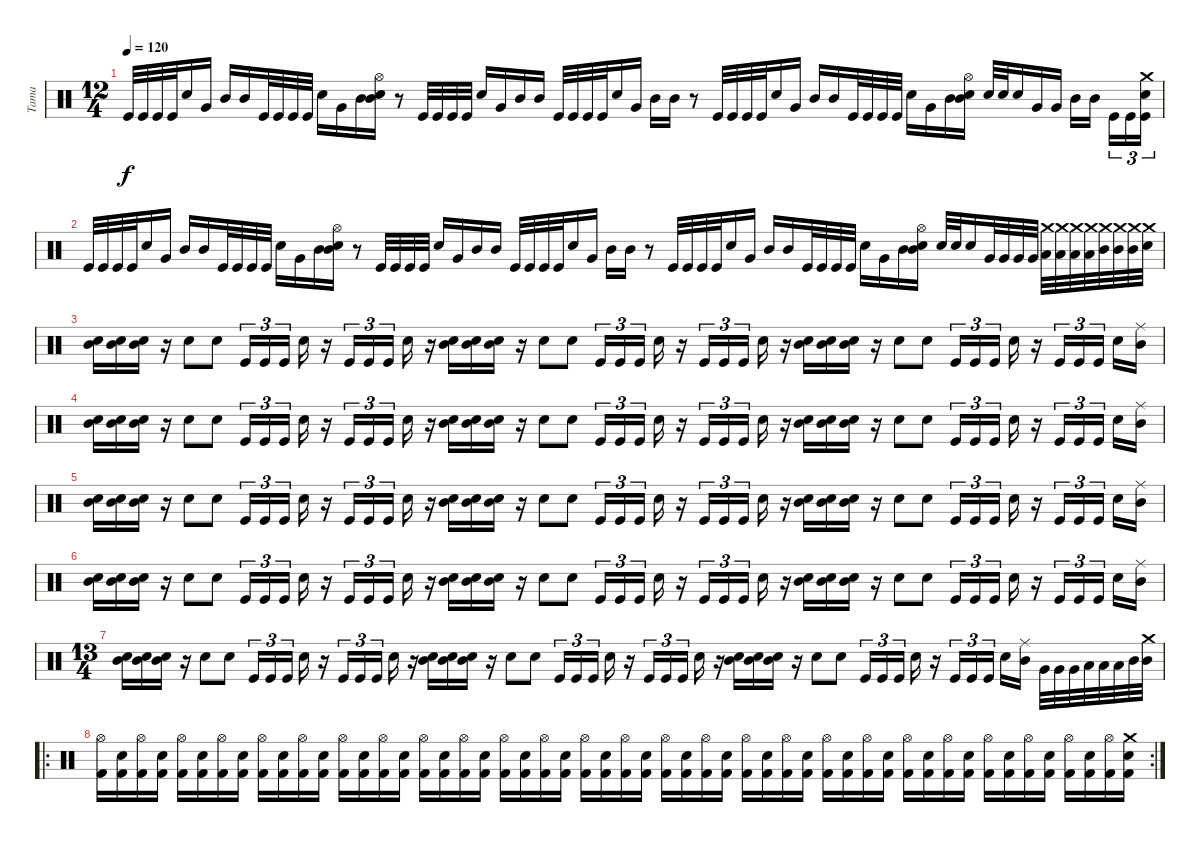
\track ("Tama" "Tama") {instrument percussion}
\staff {score}
\articulation defaults
\ts (12 4)
\tempo 120
\clef neutral
\ks c "Kick (hit)".32{dy f} "Kick (hit)".32 "Kick (hit)".32 "Kick (hit)".32 "Electric Snare (hit)".16 "Very Low Tom (hit)".16 "Mid Tom (hit)".16 "Mid Tom (hit)".16 "Kick (hit)".32 "Kick (hit)".32 "Kick (hit)".32 "Kick (hit)".32 "Electric Snare (hit)".16 "Very Low Tom (hit)".16 "Mid Tom (hit)".16
("Mid Tom (hit)" "Electric Snare (hit)" "Hi-Hat (open)").16 r.8 "Kick (hit)".32 "Kick (hit)".32 "Kick (hit)".32 "Kick (hit)".32 "Electric Snare (hit)".16 "Very Low Tom (hit)".16 "Mid Tom (hit)".16 "Mid Tom (hit)".16 "Kick (hit)".32 "Kick (hit)".32 "Kick (hit)".32 "Kick (hit)".32 "Electric Snare (hit)".16 "Very Low Tom (hit)".16 "Mid Tom (hit)".16 "Mid Tom (hit)".16 r.8 "Kick (hit)".32 "Kick (hit)".32 "Kick (hit)".32 "Kick (hit)".32 "Electric Snare (hit)".16 "Very Low Tom (hit)".16 "Mid Tom (hit)".16 "Mid Tom (hit)".16 "Kick (hit)".32 "Kick (hit)".32 "Kick (hit)".32 "Kick (hit)".32 "Electric Snare (hit)".16 "Very Low Tom (hit)".16 "Mid Tom (hit)".16 ("Mid Tom (hit)" "Electric Snare (hit)" "Hi-Hat (open)").16 "Snare (hit) 2".32 "Snare (hit) 2".32 "Electric Snare (hit)".16 "Very Low Tom (hit)".16 "Very Low Tom (hit)".16 "Mid Tom (hit)".16 "Mid Tom (hit)".16 "Kick (hit)".16{tu (3 2)} "Kick (hit)".16{tu (3 2)} ("Kick (hit)" "Crash medium (hit)" "Electric Snare (hit)").16{tu (3 2)} |
"Kick (hit)".32 "Kick (hit)".32 "Kick (hit)".32 "Kick (hit)".32 "Electric Snare (hit)".16 "Very Low Tom (hit)".16 "Mid Tom (hit)".16 "Mid Tom (hit)".16 "Kick (hit)".32 "Kick (hit)".32 "Kick (hit)".32 "Kick (hit)".32 "Electric Snare (hit)".16 "Very Low Tom (hit)".16 "Mid Tom (hit)".16 ("Mid Tom (hit)" "Electric Snare (hit)" "Hi-Hat (open)").16 r.8 "Kick (hit)".32 "Kick (hit)".32 "Kick (hit)".32 "Kick (hit)".32 "Electric Snare (hit)".16 "Very Low Tom (hit)".16 "Mid Tom (hit)".16 "Mid Tom (hit)".16 "Kick (hit)".32 "Kick (hit)".32 "Kick (hit)".32 "Kick (hit)".32 "Electric Snare (hit)".16 "Very Low Tom (hit)".16 "Mid Tom (hit)".16 "Mid Tom (hit)".16 r.8 "Kick (hit)".32 "Kick (hit)".32 "Kick (hit)".32 "Kick (hit)".32 "Electric Snare (hit)".16 "Very Low Tom (hit)".16 "Mid Tom (hit)".16 "Mid Tom (hit)".16 "Kick (hit)".32 "Kick (hit)".32 "Kick (hit)".32 "Kick (hit)".32 "Electric Snare (hit)".16 "Very Low Tom (hit)".16 "Mid Tom (hit)".16 ("Mid Tom (hit)" "Electric Snare (hit)" "Hi-Hat (open)").16 "Snare (hit) 2".32 "Snare (hit) 2".32 "Electric Snare (hit)".16 "Very Low Tom (hit)".32 "Very Low Tom (hit)".32 "Very Low Tom (hit)".32 "Very Low Tom (hit)".32 ("Low Tom (hit)" "Crash medium (hit)").32 ("Low Tom (hit)" "Crash medium (hit)").32 ("Low Tom (hit)" "Crash medium (hit)").32 ("Low Tom (hit)" "Crash medium (hit)").32 ("Mid Tom (hit)" "Crash medium (hit)").32 ("Mid Tom (hit)" "Crash medium (hit)").32 ("Mid Tom (hit)" "Crash medium (hit)").32 ("Electric Snare (hit)" "Crash medium (hit)").32 |
("Snare (hit) 2" "Mid Tom (hit)").16 ("Snare (hit) 2" "Mid Tom (hit)").16 ("Snare (hit) 2" "Mid Tom (hit)").16 r.16 "Electric Snare (hit)".8 "Electric Snare (hit)".8 "Kick (hit)".16{tu (3 2)} "Kick (hit)".16{tu (3 2)} "Kick (hit)".16{tu (3 2)} "Snare (hit) 2".16 r.16 "Kick (hit)".16{tu (3 2)} "Kick (hit)".16{tu (3 2)} "Kick (hit)".16{tu (3 2)} "Snare (hit) 2".16 r.16 ("Snare (hit) 2" "Mid Tom (hit)").16 ("Snare (hit) 2" "Mid Tom (hit)").16 ("Snare (hit) 2" "Mid Tom (hit)").16 r.16 "Electric Snare (hit)".8 "Electric Snare (hit)".8 "Kick (hit)".16{tu (3 2)} "Kick (hit)".16{tu (3 2)} "Kick (hit)".16{tu (3 2)} "Snare (hit) 2".16 r.16 "Kick (hit)".16{tu (3 2)} "Kick (hit)".16{tu (3 2)} "Kick (hit)".16{tu (3 2)} "Snare (hit) 2".16 r.16 ("Snare (hit) 2" "Mid Tom (hit)").16 ("Snare (hit) 2" "Mid Tom (hit)").16 ("Snare (hit) 2" "Mid Tom (hit)").16 r.16 "Electric Snare (hit)".8 "Electric Snare (hit)".8 "Kick (hit)".16{tu (3 2)} "Kick (hit)".16{tu (3 2)} "Kick (hit)".16{tu (3 2)} "Snare (hit) 2".16 r.16 "Kick (hit)".16{tu (3 2)} "Kick (hit)".16{tu (3 2)} "Kick (hit)".16{tu (3 2)} "Snare (hit) 2".16 ("Mid Tom (hit)" "Ride (middle)").16 |
("Snare (hit) 2" "Mid Tom (hit)").16 ("Snare (hit) 2" "Mid Tom (hit)").16 ("Snare (hit) 2" "Mid Tom (hit)").16 r.16 "Electric Snare (hit)".8 "Electric Snare (hit)".8 "Kick (hit)".16{tu (3 2)} "Kick (hit)".16{tu (3 2)} "Kick (hit)".16{tu (3 2)} "Snare (hit) 2".16 r.16 "Kick (hit)".16{tu (3 2)} "Kick (hit)".16{tu (3 2)} "Kick (hit)".16{tu (3 2)} "Snare (hit) 2".16 r.16 ("Snare (hit) 2" "Mid Tom (hit)").16 ("Snare (hit) 2" "Mid Tom (hit)").16 ("Snare (hit) 2" "Mid Tom (hit)").16 r.16 "Electric Snare (hit)".8 "Electric Snare (hit)".8 "Kick (hit)".16{tu (3 2)} "Kick (hit)".16{tu (3 2)} "Kick (hit)".16{tu (3 2)} "Snare (hit) 2".16 r.16 "Kick (hit)".16{tu (3 2)} "Kick (hit)".16{tu (3 2)} "Kick (hit)".16{tu (3 2)} "Snare (hit) 2".16 r.16 ("Snare (hit) 2" "Mid Tom (hit)").16 ("Snare (hit) 2" "Mid Tom (hit)").16 ("Snare (hit) 2" "Mid Tom (hit)").16 r.16 "Electric Snare (hit)".8 "Electric Snare (hit)".8 "Kick (hit)".16{tu (3 2)} "Kick (hit)".16{tu (3 2)} "Kick (hit)".16{tu (3 2)} "Snare (hit) 2".16 r.16 "Kick (hit)".16{tu (3 2)} "Kick (hit)".16{tu (3 2)} "Kick (hit)".16{tu (3 2)} "Snare (hit) 2".16 ("Mid Tom (hit)" "Ride (middle)").16 |
("Snare (hit) 2" "Mid Tom (hit)").16 ("Snare (hit) 2" "Mid Tom (hit)").16 ("Snare (hit) 2" "Mid Tom (hit)").16 r.16 "Electric Snare (hit)".8 "Electric Snare (hit)".8 "Kick (hit)".16{tu (3 2)} "Kick (hit)".16{tu (3 2)} "Kick (hit)".16{tu (3 2)} "Snare (hit) 2".16 r.16 "Kick (hit)".16{tu (3 2)} "Kick (hit)".16{tu (3 2)} "Kick (hit)".16{tu (3 2)} "Snare (hit) 2".16 r.16 ("Snare (hit) 2" "Mid Tom (hit)").16 ("Snare (hit) 2" "Mid Tom (hit)").16 ("Snare (hit) 2" "Mid Tom (hit)").16 r.16 "Electric Snare (hit)".8 "Electric Snare (hit)".8 "Kick (hit)".16{tu (3 2)} "Kick (hit)".16{tu (3 2)} "Kick (hit)".16{tu (3 2)} "Snare (hit) 2".16 r.16 "Kick (hit)".16{tu (3 2)} "Kick (hit)".16{tu (3 2)} "Kick (hit)".16{tu (3 2)} "Snare (hit) 2".16 r.16 ("Snare (hit) 2" "Mid Tom (hit)").16 ("Snare (hit) 2" "Mid Tom (hit)").16 ("Snare (hit) 2" "Mid Tom (hit)").16 r.16 "Electric Snare (hit)".8 "Electric Snare (hit)".8 "Kick (hit)".16{tu (3 2)} "Kick (hit)".16{tu (3 2)} "Kick (hit)".16{tu (3 2)} "Snare (hit) 2".16 r.16 "Kick (hit)".16{tu (3 2)} "Kick (hit)".16{tu (3 2)} "Kick (hit)".16{tu (3 2)} "Snare (hit) 2".16 ("Mid Tom (hit)" "Ride (middle)").16 |
("Snare (hit) 2" "Mid Tom (hit)").16 ("Snare (hit) 2" "Mid Tom (hit)").16 ("Snare (hit) 2" "Mid Tom (hit)").16 r.16 "Electric Snare (hit)".8 "Electric Snare (hit)".8 "Kick (hit)".16{tu (3 2)} "Kick (hit)".16{tu (3 2)} "Kick (hit)".16{tu (3 2)} "Snare (hit) 2".16 r.16 "Kick (hit)".16{tu (3 2)} "Kick (hit)".16{tu (3 2)} "Kick (hit)".16{tu (3 2)} "Snare (hit) 2".16 r.16 ("Snare (hit) 2" "Mid Tom (hit)").16 ("Snare (hit) 2" "Mid Tom (hit)").16 ("Snare (hit) 2" "Mid Tom (hit)").16 r.16 "Electric Snare (hit)".8 "Electric Snare (hit)".8 "Kick (hit)".16{tu (3 2)} "Kick (hit)".16{tu (3 2)} "Kick (hit)".16{tu (3 2)} "Snare (hit) 2".16 r.16 "Kick (hit)".16{tu (3 2)} "Kick (hit)".16{tu (3 2)} "Kick (hit)".16{tu (3 2)} "Snare (hit) 2".16 r.16 ("Snare (hit) 2" "Mid Tom (hit)").16 ("Snare (hit) 2" "Mid Tom (hit)").16 ("Snare (hit) 2" "Mid Tom (hit)").16 r.16 "Electric Snare (hit)".8 "Electric Snare (hit)".8 "Kick (hit)".16{tu (3 2)} "Kick (hit)".16{tu (3 2)} "Kick (hit)".16{tu (3 2)} "Snare (hit) 2".16 r.16 "Kick (hit)".16{tu (3 2)} "Kick (hit)".16{tu (3 2)} "Kick (hit)".16{tu (3 2)} "Snare (hit) 2".16 ("Mid Tom (hit)" "Ride (middle)").16 |
\ts (13 4)
("Snare (hit) 2" "Mid Tom (hit)").16 ("Snare (hit) 2" "Mid Tom (hit)").16 ("Snare (hit) 2" "Mid Tom (hit)").16 r.16 "Electric Snare (hit)".8 "Electric Snare (hit)".8 "Kick (hit)".16{tu (3 2)} "Kick (hit)".16{tu (3 2)} "Kick (hit)".16{tu (3 2)} "Snare (hit) 2".16 r.16 "Kick (hit)".16{tu (3 2)} "Kick (hit)".16{tu (3 2)} "Kick (hit)".16{tu (3 2)} "Snare (hit) 2".16 r.16 ("Snare (hit) 2" "Mid Tom (hit)").16 ("Snare (hit) 2" "Mid Tom (hit)").16 ("Snare (hit) 2" "Mid Tom (hit)").16 r.16 "Electric Snare (hit)".8 "Electric Snare (hit)".8 "Kick (hit)".16{tu (3 2)} "Kick (hit)".16{tu (3 2)} "Kick (hit)".16{tu (3 2)} "Snare (hit) 2".16 r.16 "Kick (hit)".16{tu (3 2)} "Kick (hit)".16{tu (3 2)} "Kick (hit)".16{tu (3 2)} "Snare (hit) 2".16 r.16 ("Snare (hit) 2" "Mid Tom (hit)").16 ("Snare (hit) 2" "Mid Tom (hit)").16 ("Snare (hit) 2" "Mid Tom (hit)").16 r.16 "Electric Snare (hit)".8 "Electric Snare (hit)".8 "Kick (hit)".16{tu (3 2)} "Kick (hit)".16{tu (3 2)} "Kick (hit)".16{tu (3 2)} "Snare (hit) 2".16 r.16 "Kick (hit)".16{tu (3 2)} "Kick (hit)".16{tu (3 2)} "Kick (hit)".16{tu (3 2)} "Snare (hit) 2".16 ("Mid Tom (hit)" "Ride (middle)").16 "Very Low Tom (hit)".32 "Very Low Tom (hit)".32 "Very Low Tom (hit)".32 "Low Tom (hit)".32 "Low Tom (hit)".32 "Low Tom (hit)".32 "Mid Tom (hit)".32 ("Mid Tom (hit)" "Crash medium (hit)").32 |
\ro
\rc 2
("Kick (hit) 2" "Hi-Hat (open)").16 ("Kick (hit) 2" "Electric Snare (hit)").16 ("Kick (hit) 2" "Hi-Hat (open)").16 ("Kick (hit) 2" "Electric Snare (hit)").16 ("Kick (hit) 2" "Hi-Hat (open)").16 ("Kick (hit) 2" "Electric Snare (hit)").16 ("Kick (hit) 2" "Hi-Hat (open)").16 ("Kick (hit) 2" "Electric Snare (hit)").16 ("Kick (hit) 2" "Hi-Hat (open)").16 ("Kick (hit) 2" "Electric Snare (hit)").16 ("Kick (hit) 2" "Hi-Hat (open)").16 ("Kick (hit) 2" "Electric Snare (hit)").16 ("Kick (hit) 2" "Hi-Hat (open)").16 ("Kick (hit) 2" "Electric Snare (hit)").16 ("Kick (hit) 2" "Hi-Hat (open)").16 ("Kick (hit) 2" "Electric Snare (hit)").16 ("Kick (hit) 2" "Hi-Hat (open)").16 ("Kick (hit) 2" "Electric Snare (hit)").16 ("Kick (hit) 2" "Hi-Hat (open)").16 ("Kick (hit) 2" "Electric Snare (hit)").16 ("Kick (hit) 2" "Hi-Hat (open)").16 ("Kick (hit) 2" "Electric Snare (hit)").16 ("Kick (hit) 2" "Hi-Hat (open)").16 ("Kick (hit) 2" "Electric Snare (hit)").16 ("Kick (hit) 2" "Hi-Hat (open)").16 ("Kick (hit) 2" "Electric Snare (hit)").16 ("Kick (hit) 2" "Hi-Hat (open)").16 ("Kick (hit) 2" "Electric Snare (hit)").16 ("Kick (hit) 2" "Hi-Hat (open)").16 ("Kick (hit) 2" "Electric Snare (hit)").16 ("Kick (hit) 2" "Hi-Hat (open)").16 ("Kick (hit) 2" "Electric Snare (hit)").16 ("Kick (hit) 2" "Hi-Hat (open)").16 ("Kick (hit) 2" "Electric Snare (hit)").16 ("Kick (hit) 2" "Hi-Hat (open)").16 ("Kick (hit) 2" "Electric Snare (hit)").16 ("Kick (hit) 2" "Hi-Hat (open)").16 ("Kick (hit) 2" "Electric Snare (hit)").16 ("Kick (hit) 2" "Hi-Hat (open)").16 ("Kick (hit) 2" "Electric Snare (hit)").16 ("Kick (hit) 2" "Hi-Hat (open)").16 ("Kick (hit) 2" "Electric Snare (hit)").16 ("Kick (hit) 2" "Hi-Hat (open)").16 ("Kick (hit) 2" "Electric Snare (hit)").16 ("Kick (hit) 2" "Hi-Hat (open)").16 ("Kick (hit) 2" "Electric Snare (hit)").16 ("Kick (hit) 2" "Hi-Hat (open)").16 ("Kick (hit) 2" "Electric Snare (hit)").16 ("Kick (hit) 2" "Hi-Hat (open)").16 ("Kick (hit) 2" "Electric Snare (hit)").16 ("Kick (hit) 2" "Hi-Hat (open)").16 ("Kick (hit) 2" "Electric Snare (hit)" "Crash medium (hit)").16
